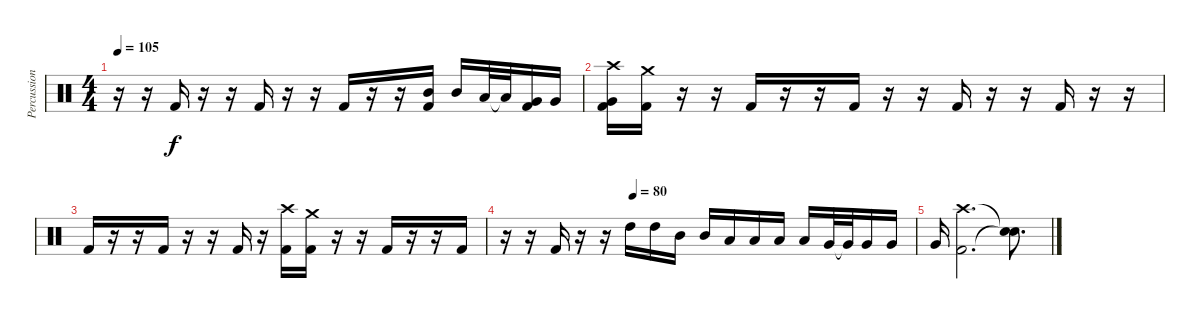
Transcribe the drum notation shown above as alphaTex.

\track ("Percussions" "Percussion") {instrument percussion}
\staff {score}
\articulation defaults
\ts (4 4)
\tempo 105
\clef neutral
\ks c
r.16{dy f} r.16 "Kick (hit) 2".16 r.16 r.16 "Kick (hit) 2".16 r.16 r.16 "Kick (hit) 2".16 r.16 r.16 ("Mid Tom (hit)" "Kick (hit) 2").16 "Mid Tom (hit)".16 "Low Tom (hit)".32 "Low Tom (hit)"{t}.32 ("Very Low Tom (hit)" "Kick (hit) 2").16 "Very Low Tom (hit)".16 |
("Crash high (hit)" "Very Low Tom (hit)" "Kick (hit) 2").16 ("Crash medium (hit)" "Kick (hit) 2").16 r.16 r.16 "Kick (hit) 2".16 r.16 r.16 "Kick (hit) 2".16 r.16 r.16 "Kick (hit) 2".16 r.16 r.16 "Kick (hit) 2".16 r.16 r.16 |
"Kick (hit) 2".16 r.16 r.16 "Kick (hit) 2".16 r.16 r.16 "Kick (hit) 2".16 r.16 ("Crash high (hit)" "Kick (hit) 2").16 ("Crash medium (hit)" "Kick (hit) 2").16 r.16 r.16 "Kick (hit) 2".16 r.16 r.16 "Kick (hit) 2".16 |
\tempo (80 0.3125)
r.16 r.16 "Kick (hit) 2".16 r.16 r.16 "High Tom (hit)".16 "High Tom (hit)".16 "Mid Tom (hit)".16 "Mid Tom (hit)".16 "Low Tom (hit)".16 "Low Tom (hit)".16 "Low Tom (hit)".16 "Low Tom (hit)".16 "Very Low Tom (hit)".32 "Very Low Tom (hit)"{t}.32 "Very Low Tom (hit)".16 "Very Low Tom (hit)".16 |
"Very Low Tom (hit)".16 ("Crash high (hit)" "Kick (hit) 2").2{d} ("Snare (hit)"{t} "Snare (hit)"{t}).8{d}
